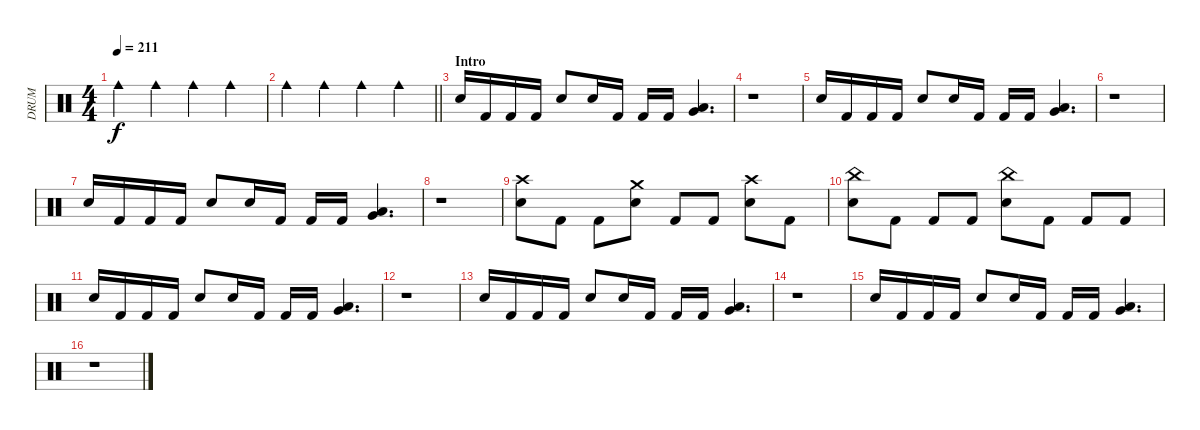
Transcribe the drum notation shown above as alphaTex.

\track ("DRUM" "DRUM") {instrument percussion bank 102}
\staff {score}
\articulation defaults
\ts (4 4)
\tempo 211
\clef neutral
\ks c "Cowbell medium (hit)".4{dy f} "Cowbell medium (hit)".4 "Cowbell medium (hit)".4 "Cowbell medium (hit)".4
|
\barLineRight lightlight "Cowbell medium (hit)".4 "Cowbell medium (hit)".4 "Cowbell medium (hit)".4 "Cowbell medium (hit)".4
|
\section ("" "Intro")
"Electric Snare (hit)".16 "Kick (hit) 2".16 "Kick (hit) 2".16 "Kick (hit) 2".16 "Electric Snare (hit)".8 "Electric Snare (hit)".16 "Kick (hit) 2".16 "Kick (hit) 2".16 "Kick (hit) 2".16 ("Very Low Tom (hit)" "Low Floor Tom (hit)").4{d} |
r.1 |
"Electric Snare (hit)".16 "Kick (hit) 2".16 "Kick (hit) 2".16 "Kick (hit) 2".16 "Electric Snare (hit)".8 "Electric Snare (hit)".16 "Kick (hit) 2".16 "Kick (hit) 2".16 "Kick (hit) 2".16 ("Very Low Tom (hit)" "Low Floor Tom (hit)").4{d} |
r.1 |
"Electric Snare (hit)".16 "Kick (hit) 2".16 "Kick (hit) 2".16 "Kick (hit) 2".16 "Electric Snare (hit)".8 "Electric Snare (hit)".16 "Kick (hit) 2".16 "Kick (hit) 2".16 "Kick (hit) 2".16 ("Very Low Tom (hit)" "Low Floor Tom (hit)").4{d} |
r.1 |
("Crash high (hit)" "Electric Snare (hit)").8 "Kick (hit) 2".8 "Kick (hit) 2".8 ("Crash medium (hit)" "Electric Snare (hit)").8 "Kick (hit) 2".8 "Kick (hit) 2".8 ("Crash high (hit)" "Electric Snare (hit)").8 "Kick (hit) 2".8 |
("China (hit)" "Electric Snare (hit)").8 "Kick (hit) 2".8 "Kick (hit) 2".8 "Kick (hit) 2".8 ("China (hit)" "Electric Snare (hit)").8 "Kick (hit) 2".8 "Kick (hit) 2".8 "Kick (hit) 2".8 |
"Electric Snare (hit)".16 "Kick (hit) 2".16 "Kick (hit) 2".16 "Kick (hit) 2".16 "Electric Snare (hit)".8 "Electric Snare (hit)".16 "Kick (hit) 2".16 "Kick (hit) 2".16 "Kick (hit) 2".16 ("Very Low Tom (hit)" "Low Floor Tom (hit)").4{d} |
r.1 |
"Electric Snare (hit)".16 "Kick (hit) 2".16 "Kick (hit) 2".16 "Kick (hit) 2".16 "Electric Snare (hit)".8 "Electric Snare (hit)".16 "Kick (hit) 2".16 "Kick (hit) 2".16 "Kick (hit) 2".16 ("Very Low Tom (hit)" "Low Floor Tom (hit)").4{d} |
r.1 |
"Electric Snare (hit)".16 "Kick (hit) 2".16 "Kick (hit) 2".16 "Kick (hit) 2".16 "Electric Snare (hit)".8 "Electric Snare (hit)".16 "Kick (hit) 2".16 "Kick (hit) 2".16 "Kick (hit) 2".16 ("Very Low Tom (hit)" "Low Floor Tom (hit)").4{d} |
r.1
